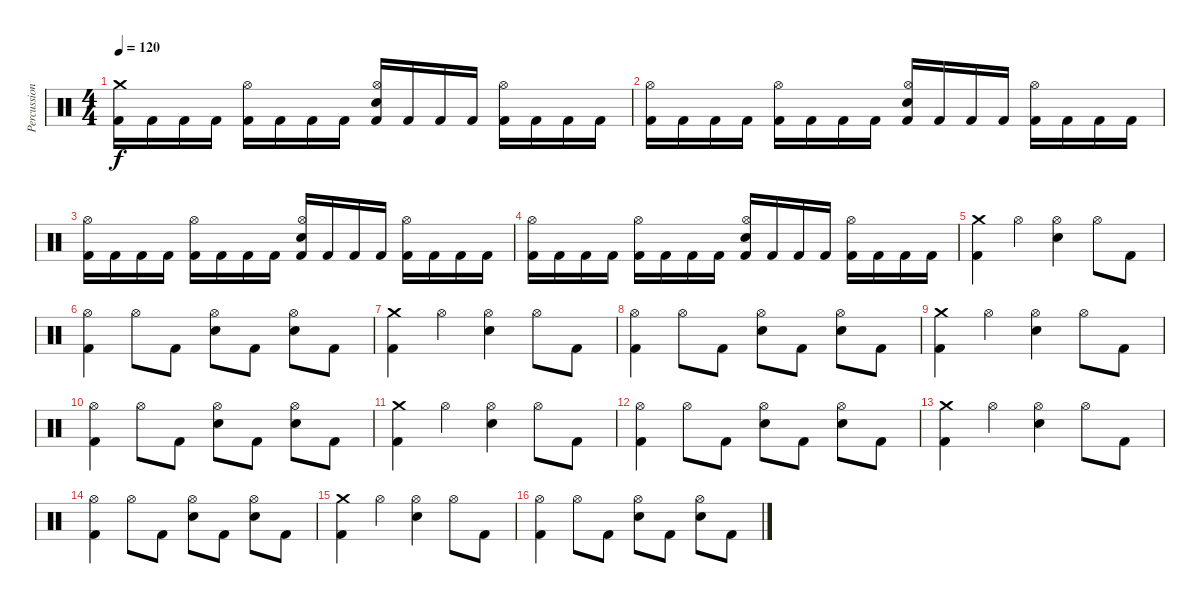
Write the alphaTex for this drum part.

\track ("Percussions" "Percussion") {instrument percussion}
\staff {score}
\articulation defaults
\ts (4 4)
\tempo 120
\clef neutral
\ks c
("Crash medium (hit)" "Kick (hit) 2").16{dy f} "Kick (hit) 2".16 "Kick (hit) 2".16 "Kick (hit) 2".16 ("Hi-Hat (open)" "Kick (hit) 2").16 "Kick (hit) 2".16 "Kick (hit) 2".16 "Kick (hit) 2".16 ("Hi-Hat (open)" "Electric Snare (hit)" "Kick (hit) 2").16 "Kick (hit) 2".16 "Kick (hit) 2".16 "Kick (hit) 2".16 ("Hi-Hat (open)" "Kick (hit) 2").16 "Kick (hit) 2".16 "Kick (hit) 2".16 "Kick (hit) 2".16 |
("Hi-Hat (open)" "Kick (hit) 2").16 "Kick (hit) 2".16 "Kick (hit) 2".16 "Kick (hit) 2".16 ("Hi-Hat (open)" "Kick (hit) 2").16 "Kick (hit) 2".16 "Kick (hit) 2".16 "Kick (hit) 2".16 ("Hi-Hat (open)" "Electric Snare (hit)" "Kick (hit) 2").16 "Kick (hit) 2".16 "Kick (hit) 2".16 "Kick (hit) 2".16 ("Hi-Hat (open)" "Kick (hit) 2").16 "Kick (hit) 2".16 "Kick (hit) 2".16 "Kick (hit) 2".16 |
("Hi-Hat (open)" "Kick (hit) 2").16 "Kick (hit) 2".16 "Kick (hit) 2".16 "Kick (hit) 2".16 ("Hi-Hat (open)" "Kick (hit) 2").16 "Kick (hit) 2".16 "Kick (hit) 2".16 "Kick (hit) 2".16 ("Hi-Hat (open)" "Electric Snare (hit)" "Kick (hit) 2").16 "Kick (hit) 2".16 "Kick (hit) 2".16 "Kick (hit) 2".16 ("Hi-Hat (open)" "Kick (hit) 2").16 "Kick (hit) 2".16 "Kick (hit) 2".16 "Kick (hit) 2".16 |
("Hi-Hat (open)" "Kick (hit) 2").16 "Kick (hit) 2".16 "Kick (hit) 2".16 "Kick (hit) 2".16 ("Hi-Hat (open)" "Kick (hit) 2").16 "Kick (hit) 2".16 "Kick (hit) 2".16 "Kick (hit) 2".16 ("Hi-Hat (open)" "Electric Snare (hit)" "Kick (hit) 2").16 "Kick (hit) 2".16 "Kick (hit) 2".16 "Kick (hit) 2".16 ("Hi-Hat (open)" "Kick (hit) 2").16 "Kick (hit) 2".16 "Kick (hit) 2".16 "Kick (hit) 2".16 |
("Crash medium (hit)" "Kick (hit) 2").4 "Hi-Hat (open)".4 ("Hi-Hat (open)" "Electric Snare (hit)").4 "Hi-Hat (open)".8 "Kick (hit) 2".8 |
("Hi-Hat (open)" "Kick (hit) 2").4 "Hi-Hat (open)".8 "Kick (hit) 2".8 ("Hi-Hat (open)" "Electric Snare (hit)").8 "Kick (hit) 2".8 ("Hi-Hat (open)" "Electric Snare (hit)").8 "Kick (hit) 2".8 |
("Crash medium (hit)" "Kick (hit) 2").4 "Hi-Hat (open)".4 ("Hi-Hat (open)" "Electric Snare (hit)").4 "Hi-Hat (open)".8 "Kick (hit) 2".8 |
("Hi-Hat (open)" "Kick (hit) 2").4 "Hi-Hat (open)".8 "Kick (hit) 2".8 ("Hi-Hat (open)" "Electric Snare (hit)").8 "Kick (hit) 2".8 ("Hi-Hat (open)" "Electric Snare (hit)").8 "Kick (hit) 2".8 |
("Crash medium (hit)" "Kick (hit) 2").4 "Hi-Hat (open)".4 ("Hi-Hat (open)" "Electric Snare (hit)").4 "Hi-Hat (open)".8 "Kick (hit) 2".8 |
("Hi-Hat (open)" "Kick (hit) 2").4 "Hi-Hat (open)".8 "Kick (hit) 2".8 ("Hi-Hat (open)" "Electric Snare (hit)").8 "Kick (hit) 2".8 ("Hi-Hat (open)" "Electric Snare (hit)").8 "Kick (hit) 2".8 |
("Crash medium (hit)" "Kick (hit) 2").4 "Hi-Hat (open)".4 ("Hi-Hat (open)" "Electric Snare (hit)").4 "Hi-Hat (open)".8 "Kick (hit) 2".8 |
("Hi-Hat (open)" "Kick (hit) 2").4 "Hi-Hat (open)".8 "Kick (hit) 2".8 ("Hi-Hat (open)" "Electric Snare (hit)").8 "Kick (hit) 2".8 ("Hi-Hat (open)" "Electric Snare (hit)").8 "Kick (hit) 2".8 |
("Crash medium (hit)" "Kick (hit) 2").4 "Hi-Hat (open)".4 ("Hi-Hat (open)" "Electric Snare (hit)").4 "Hi-Hat (open)".8 "Kick (hit) 2".8 |
("Hi-Hat (open)" "Kick (hit) 2").4 "Hi-Hat (open)".8 "Kick (hit) 2".8 ("Hi-Hat (open)" "Electric Snare (hit)").8 "Kick (hit) 2".8 ("Hi-Hat (open)" "Electric Snare (hit)").8 "Kick (hit) 2".8 |
("Crash medium (hit)" "Kick (hit) 2").4 "Hi-Hat (open)".4 ("Hi-Hat (open)" "Electric Snare (hit)").4 "Hi-Hat (open)".8 "Kick (hit) 2".8 |
("Hi-Hat (open)" "Kick (hit) 2").4 "Hi-Hat (open)".8 "Kick (hit) 2".8 ("Hi-Hat (open)" "Electric Snare (hit)").8 "Kick (hit) 2".8 ("Hi-Hat (open)" "Electric Snare (hit)").8 "Kick (hit) 2".8
